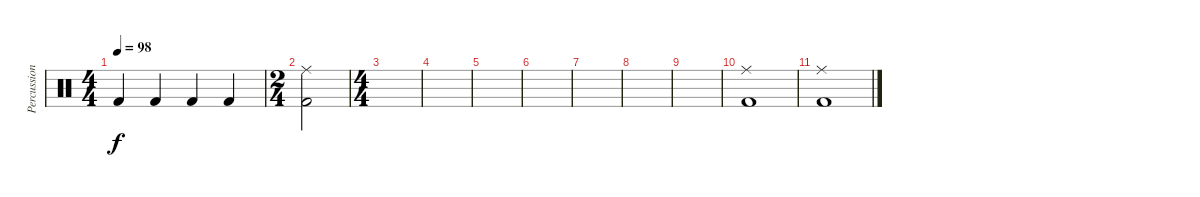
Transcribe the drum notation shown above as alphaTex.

\track ("Percussion" "Percussion") {instrument percussion}
\staff {score}
\articulation defaults
\ts (4 4)
\tempo 98
\clef neutral
\ks c "Kick (hit) 2".4{dy f} "Kick (hit) 2".4 "Kick (hit) 2".4 "Kick (hit) 2".4
|
\ts (2 4)
("Ride (middle)" "Kick (hit) 2").2 |
\ts (4 4)
|
|
|
|
|
|
|
("Ride (middle)" "Kick (hit) 2").1 |
("Ride (middle)" "Kick (hit) 2").1
